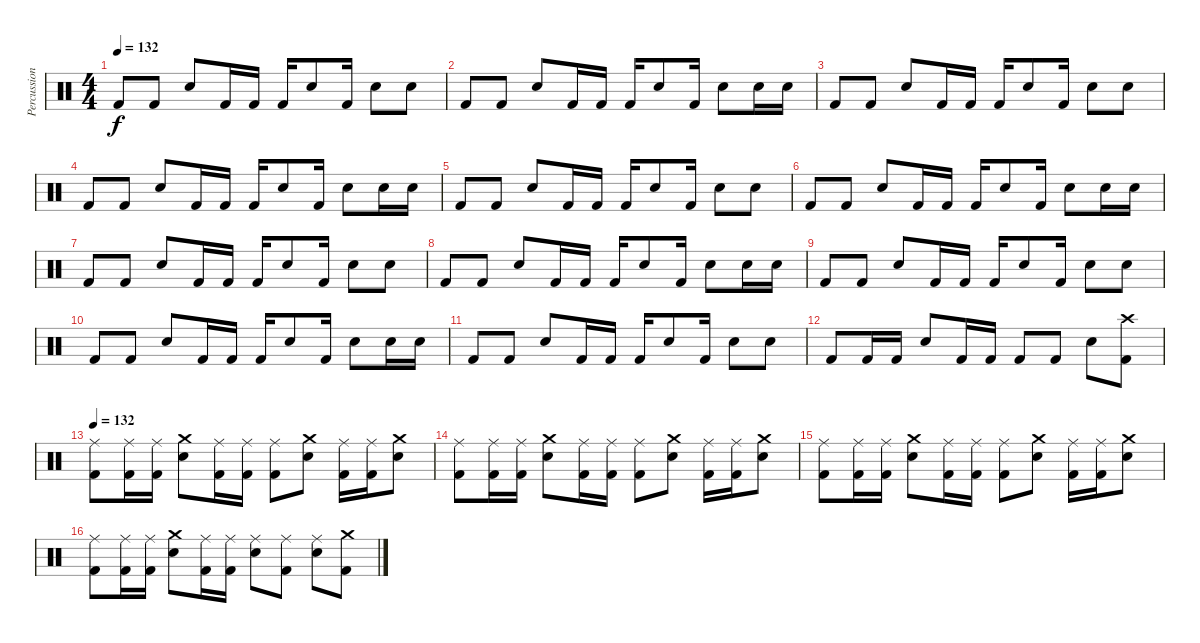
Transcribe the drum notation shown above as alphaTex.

\track ("Percussion" "Percussion") {instrument percussion}
\staff {score}
\articulation defaults
\ts (4 4)
\tempo 132
\clef neutral
\ks c "Kick (hit) 2".8{dy f} "Kick (hit) 2".8 "Electric Snare (hit)".8 "Kick (hit) 2".16 "Kick (hit) 2".16 "Kick (hit) 2".16 "Electric Snare (hit)".8 "Kick (hit) 2".16 "Electric Snare (hit)".8 "Electric Snare (hit)".8
|
"Kick (hit) 2".8 "Kick (hit) 2".8 "Electric Snare (hit)".8 "Kick (hit) 2".16 "Kick (hit) 2".16 "Kick (hit) 2".16 "Electric Snare (hit)".8 "Kick (hit) 2".16 "Electric Snare (hit)".8 "Electric Snare (hit)".16 "Electric Snare (hit)".16 |
"Kick (hit) 2".8 "Kick (hit) 2".8 "Electric Snare (hit)".8 "Kick (hit) 2".16 "Kick (hit) 2".16 "Kick (hit) 2".16 "Electric Snare (hit)".8 "Kick (hit) 2".16 "Electric Snare (hit)".8 "Electric Snare (hit)".8 |
"Kick (hit) 2".8 "Kick (hit) 2".8 "Electric Snare (hit)".8 "Kick (hit) 2".16 "Kick (hit) 2".16 "Kick (hit) 2".16 "Electric Snare (hit)".8 "Kick (hit) 2".16 "Electric Snare (hit)".8 "Electric Snare (hit)".16 "Electric Snare (hit)".16 |
"Kick (hit) 2".8 "Kick (hit) 2".8 "Electric Snare (hit)".8 "Kick (hit) 2".16 "Kick (hit) 2".16 "Kick (hit) 2".16 "Electric Snare (hit)".8 "Kick (hit) 2".16 "Electric Snare (hit)".8 "Electric Snare (hit)".8 |
"Kick (hit) 2".8 "Kick (hit) 2".8 "Electric Snare (hit)".8 "Kick (hit) 2".16 "Kick (hit) 2".16 "Kick (hit) 2".16 "Electric Snare (hit)".8 "Kick (hit) 2".16 "Electric Snare (hit)".8 "Electric Snare (hit)".16 "Electric Snare (hit)".16 |
"Kick (hit) 2".8 "Kick (hit) 2".8 "Electric Snare (hit)".8 "Kick (hit) 2".16 "Kick (hit) 2".16 "Kick (hit) 2".16 "Electric Snare (hit)".8 "Kick (hit) 2".16 "Electric Snare (hit)".8 "Electric Snare (hit)".8 |
"Kick (hit) 2".8 "Kick (hit) 2".8 "Electric Snare (hit)".8 "Kick (hit) 2".16 "Kick (hit) 2".16 "Kick (hit) 2".16 "Electric Snare (hit)".8 "Kick (hit) 2".16 "Electric Snare (hit)".8 "Electric Snare (hit)".16 "Electric Snare (hit)".16 |
"Kick (hit) 2".8 "Kick (hit) 2".8 "Electric Snare (hit)".8 "Kick (hit) 2".16 "Kick (hit) 2".16 "Kick (hit) 2".16 "Electric Snare (hit)".8 "Kick (hit) 2".16 "Electric Snare (hit)".8 "Electric Snare (hit)".8 |
"Kick (hit) 2".8 "Kick (hit) 2".8 "Electric Snare (hit)".8 "Kick (hit) 2".16 "Kick (hit) 2".16 "Kick (hit) 2".16 "Electric Snare (hit)".8 "Kick (hit) 2".16 "Electric Snare (hit)".8 "Electric Snare (hit)".16 "Electric Snare (hit)".16 |
"Kick (hit) 2".8 "Kick (hit) 2".8 "Electric Snare (hit)".8 "Kick (hit) 2".16 "Kick (hit) 2".16 "Kick (hit) 2".16 "Electric Snare (hit)".8 "Kick (hit) 2".16 "Electric Snare (hit)".8 "Electric Snare (hit)".8 |
"Kick (hit) 2".8 "Kick (hit) 2".16 "Kick (hit) 2".16 "Electric Snare (hit)".8 "Kick (hit) 2".16 "Kick (hit) 2".16 "Kick (hit) 2".8 "Kick (hit) 2".8 "Electric Snare (hit)".8 ("Crash high (hit)" "Kick (hit) 2").8 |
\tempo 132
("Ride (middle)" "Kick (hit) 2").8 ("Ride (middle)" "Kick (hit) 2").16 ("Ride (middle)" "Kick (hit) 2").16 ("Crash medium (hit)" "Electric Snare (hit)").8 ("Ride (middle)" "Kick (hit) 2").16 ("Ride (middle)" "Kick (hit) 2").16 ("Ride (middle)" "Kick (hit) 2").8 ("Crash medium (hit)" "Electric Snare (hit)").8 ("Ride (middle)" "Kick (hit) 2").16 ("Ride (middle)" "Kick (hit) 2").16 ("Crash medium (hit)" "Electric Snare (hit)").8 |
("Ride (middle)" "Kick (hit) 2").8 ("Ride (middle)" "Kick (hit) 2").16 ("Ride (middle)" "Kick (hit) 2").16 ("Crash medium (hit)" "Electric Snare (hit)").8 ("Ride (middle)" "Kick (hit) 2").16 ("Ride (middle)" "Kick (hit) 2").16 ("Ride (middle)" "Kick (hit) 2").8 ("Crash medium (hit)" "Electric Snare (hit)").8 ("Ride (middle)" "Kick (hit) 2").16 ("Ride (middle)" "Kick (hit) 2").16 ("Crash medium (hit)" "Electric Snare (hit)").8 |
("Ride (middle)" "Kick (hit) 2").8 ("Ride (middle)" "Kick (hit) 2").16 ("Ride (middle)" "Kick (hit) 2").16 ("Crash medium (hit)" "Electric Snare (hit)").8 ("Ride (middle)" "Kick (hit) 2").16 ("Ride (middle)" "Kick (hit) 2").16 ("Ride (middle)" "Kick (hit) 2").8 ("Crash medium (hit)" "Electric Snare (hit)").8 ("Ride (middle)" "Kick (hit) 2").16 ("Ride (middle)" "Kick (hit) 2").16 ("Crash medium (hit)" "Electric Snare (hit)").8 |
("Ride (middle)" "Kick (hit) 2").8 ("Ride (middle)" "Kick (hit) 2").16 ("Ride (middle)" "Kick (hit) 2").16 ("Crash medium (hit)" "Electric Snare (hit)").8 ("Ride (middle)" "Kick (hit) 2").16 ("Ride (middle)" "Kick (hit) 2").16 ("Ride (middle)" "Electric Snare (hit)").8 ("Ride (middle)" "Kick (hit) 2").8 ("Ride (middle)" "Electric Snare (hit)").8 ("Crash medium (hit)" "Kick (hit) 2").8
